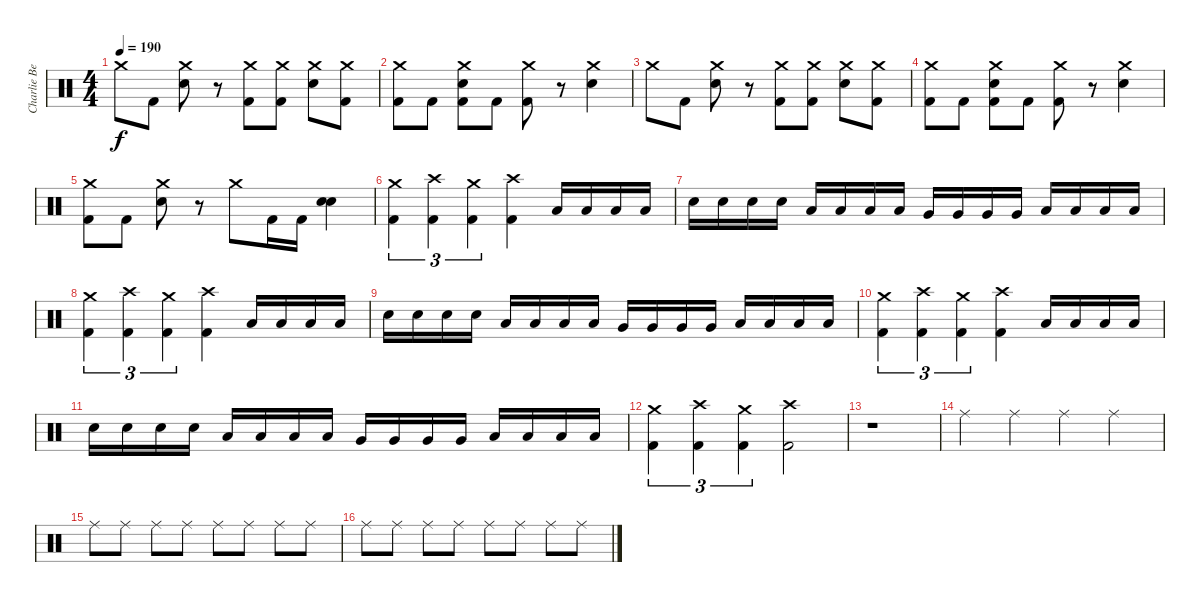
\track ("Charlie Benante" "Charlie Be") {instrument percussion}
\staff {score}
\articulation defaults
\ts (4 4)
\tempo 190
\clef neutral
\ks c "Crash medium (hit)".8{dy f} "Kick (hit) 2".8
("Snare (hit) 2" "Crash medium (hit)").8 r.8 ("Crash medium (hit)" "Kick (hit) 2").8 ("Crash medium (hit)" "Kick (hit) 2").8 ("Snare (hit) 2" "Crash medium (hit)").8 ("Crash medium (hit)" "Kick (hit) 2").8 |
("Crash medium (hit)" "Kick (hit) 2").8 "Kick (hit) 2".8 ("Snare (hit) 2" "Crash medium (hit)" "Kick (hit) 2").8 "Kick (hit) 2".8 ("Crash medium (hit)" "Kick (hit) 2").8 r.8 ("Snare (hit) 2" "Crash medium (hit)").4 |
"Crash medium (hit)".8 "Kick (hit) 2".8 ("Snare (hit) 2" "Crash medium (hit)").8 r.8 ("Crash medium (hit)" "Kick (hit) 2").8 ("Crash medium (hit)" "Kick (hit) 2").8 ("Snare (hit) 2" "Crash medium (hit)").8 ("Crash medium (hit)" "Kick (hit) 2").8 |
("Crash medium (hit)" "Kick (hit) 2").8 "Kick (hit) 2".8 ("Snare (hit) 2" "Crash medium (hit)" "Kick (hit) 2").8 "Kick (hit) 2".8 ("Crash medium (hit)" "Kick (hit) 2").8 r.8 ("Snare (hit) 2" "Crash medium (hit)").4 |
("Crash medium (hit)" "Kick (hit) 2").8 "Kick (hit) 2".8 ("Snare (hit) 2" "Crash medium (hit)").8 r.8 "Crash medium (hit)".8 "Kick (hit) 2".16 "Kick (hit) 2".16 ("Electric Snare (hit)" "Snare (hit) 2").4 |
("Crash medium (hit)" "Kick (hit) 2").4{tu (3 2)} ("Crash high (hit)" "Kick (hit) 2").4{tu (3 2)} ("Crash medium (hit)" "Kick (hit) 2").4{tu (3 2)} ("Crash high (hit)" "Kick (hit) 2").4 "Low Tom (hit)".16 "Low Tom (hit)".16 "Low Tom (hit)".16 "Low Tom (hit)".16 |
"Snare (hit) 2".16 "Snare (hit) 2".16 "Snare (hit) 2".16 "Snare (hit) 2".16 "Low Tom (hit)".16 "Low Tom (hit)".16 "Low Tom (hit)".16 "Low Tom (hit)".16 "Very Low Tom (hit)".16 "Very Low Tom (hit)".16 "Very Low Tom (hit)".16 "Very Low Tom (hit)".16 "Low Floor Tom (hit)".16 "Low Floor Tom (hit)".16 "Low Floor Tom (hit)".16 "Low Floor Tom (hit)".16 |
("Crash medium (hit)" "Kick (hit) 2").4{tu (3 2)} ("Crash high (hit)" "Kick (hit) 2").4{tu (3 2)} ("Crash medium (hit)" "Kick (hit) 2").4{tu (3 2)} ("Crash high (hit)" "Kick (hit) 2").4 "Low Tom (hit)".16 "Low Tom (hit)".16 "Low Tom (hit)".16 "Low Tom (hit)".16 |
"Snare (hit) 2".16 "Snare (hit) 2".16 "Snare (hit) 2".16 "Snare (hit) 2".16 "Low Tom (hit)".16 "Low Tom (hit)".16 "Low Tom (hit)".16 "Low Tom (hit)".16 "Very Low Tom (hit)".16 "Very Low Tom (hit)".16 "Very Low Tom (hit)".16 "Very Low Tom (hit)".16 "Low Floor Tom (hit)".16 "Low Floor Tom (hit)".16 "Low Floor Tom (hit)".16 "Low Floor Tom (hit)".16 |
("Crash medium (hit)" "Kick (hit) 2").4{tu (3 2)} ("Crash high (hit)" "Kick (hit) 2").4{tu (3 2)} ("Crash medium (hit)" "Kick (hit) 2").4{tu (3 2)} ("Crash high (hit)" "Kick (hit) 2").4 "Low Tom (hit)".16 "Low Tom (hit)".16 "Low Tom (hit)".16 "Low Tom (hit)".16 |
"Snare (hit) 2".16 "Snare (hit) 2".16 "Snare (hit) 2".16 "Snare (hit) 2".16 "Low Tom (hit)".16 "Low Tom (hit)".16 "Low Tom (hit)".16 "Low Tom (hit)".16 "Very Low Tom (hit)".16 "Very Low Tom (hit)".16 "Very Low Tom (hit)".16 "Very Low Tom (hit)".16 "Low Floor Tom (hit)".16 "Low Floor Tom (hit)".16 "Low Floor Tom (hit)".16 "Low Floor Tom (hit)".16 |
("Crash medium (hit)" "Kick (hit) 2").4{tu (3 2)} ("Crash high (hit)" "Kick (hit) 2").4{tu (3 2)} ("Crash medium (hit)" "Kick (hit) 2").4{tu (3 2)} ("Crash high (hit)" "Kick (hit) 2").2 |
r.1 |
"Ride (middle)".4 "Ride (middle)".4 "Ride (middle)".4 "Ride (middle)".4 |
"Ride (middle)".8 "Ride (middle)".8 "Ride (middle)".8 "Ride (middle)".8 "Ride (middle)".8 "Ride (middle)".8 "Ride (middle)".8 "Ride (middle)".8 |
"Ride (middle)".8 "Ride (middle)".8 "Ride (middle)".8 "Ride (middle)".8 "Ride (middle)".8 "Ride (middle)".8 "Ride (middle)".8 "Ride (middle)".8
